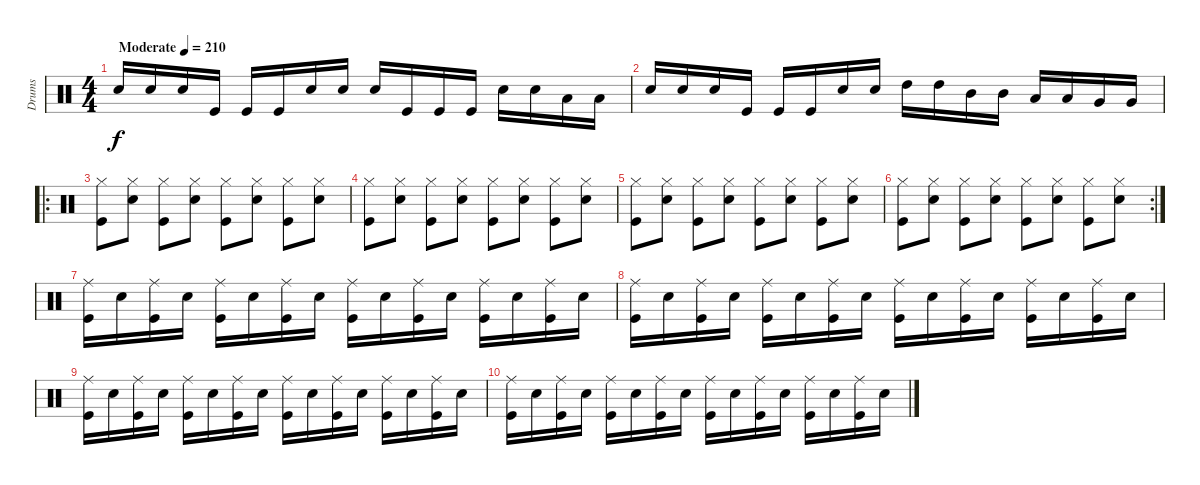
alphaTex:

\track ("Drums" "Drums") {instrument percussion}
\staff {score}
\articulation defaults
\ts (4 4)
\tempo (210 "Moderate")
\clef neutral
\ks c "Snare (hit) 2".16{dy f} "Snare (hit) 2".16 "Snare (hit) 2".16 "Kick (hit)".16 "Kick (hit)".16 "Kick (hit)".16 "Snare (hit) 2".16 "Snare (hit) 2".16 "Snare (hit) 2".16 "Kick (hit)".16 "Kick (hit)".16 "Kick (hit)".16 "Snare (hit) 2".16 "Snare (hit) 2".16 "Low Floor Tom (hit)".16 "Low Floor Tom (hit)".16
|
"Snare (hit) 2".16 "Snare (hit) 2".16 "Snare (hit) 2".16 "Kick (hit)".16 "Kick (hit)".16 "Kick (hit)".16 "Snare (hit) 2".16 "Snare (hit) 2".16 "High Tom (hit)".16 "High Tom (hit)".16 "Mid Tom (hit)".16 "Mid Tom (hit)".16 "Low Tom (hit)".16 "Low Tom (hit)".16 "Very Low Tom (hit)".16 "Very Low Tom (hit)".16 |
\ro
("Hi-Hat (closed)" "Kick (hit)").8 ("Hi-Hat (closed)" "Snare (hit) 2").8 ("Hi-Hat (closed)" "Kick (hit)").8 ("Hi-Hat (closed)" "Snare (hit) 2").8 ("Hi-Hat (closed)" "Kick (hit)").8 ("Hi-Hat (closed)" "Snare (hit) 2").8 ("Hi-Hat (closed)" "Kick (hit)").8 ("Hi-Hat (closed)" "Snare (hit) 2").8 |
("Hi-Hat (closed)" "Kick (hit)").8 ("Hi-Hat (closed)" "Snare (hit) 2").8 ("Hi-Hat (closed)" "Kick (hit)").8 ("Hi-Hat (closed)" "Snare (hit) 2").8 ("Hi-Hat (closed)" "Kick (hit)").8 ("Hi-Hat (closed)" "Snare (hit) 2").8 ("Hi-Hat (closed)" "Kick (hit)").8 ("Hi-Hat (closed)" "Snare (hit) 2").8 |
("Hi-Hat (closed)" "Kick (hit)").8 ("Hi-Hat (closed)" "Snare (hit) 2").8 ("Hi-Hat (closed)" "Kick (hit)").8 ("Hi-Hat (closed)" "Snare (hit) 2").8 ("Hi-Hat (closed)" "Kick (hit)").8 ("Hi-Hat (closed)" "Snare (hit) 2").8 ("Hi-Hat (closed)" "Kick (hit)").8 ("Hi-Hat (closed)" "Snare (hit) 2").8 |
\rc 2
("Hi-Hat (closed)" "Kick (hit)").8 ("Hi-Hat (closed)" "Snare (hit) 2").8 ("Hi-Hat (closed)" "Kick (hit)").8 ("Hi-Hat (closed)" "Snare (hit) 2").8 ("Hi-Hat (closed)" "Kick (hit)").8 ("Hi-Hat (closed)" "Snare (hit) 2").8 ("Hi-Hat (closed)" "Kick (hit)").8 ("Hi-Hat (closed)" "Snare (hit) 2").8 |
("Ride (middle)" "Kick (hit)").16 "Snare (hit) 2".16 ("Ride (middle)" "Kick (hit)").16 "Snare (hit) 2".16 ("Ride (middle)" "Kick (hit)").16 "Snare (hit) 2".16 ("Ride (middle)" "Kick (hit)").16 "Snare (hit) 2".16 ("Ride (middle)" "Kick (hit)").16 "Snare (hit) 2".16 ("Ride (middle)" "Kick (hit)").16 "Snare (hit) 2".16 ("Ride (middle)" "Kick (hit)").16 "Snare (hit) 2".16 ("Ride (middle)" "Kick (hit)").16 "Snare (hit) 2".16 |
("Ride (middle)" "Kick (hit)").16 "Snare (hit) 2".16 ("Ride (middle)" "Kick (hit)").16 "Snare (hit) 2".16 ("Ride (middle)" "Kick (hit)").16 "Snare (hit) 2".16 ("Ride (middle)" "Kick (hit)").16 "Snare (hit) 2".16 ("Ride (middle)" "Kick (hit)").16 "Snare (hit) 2".16 ("Ride (middle)" "Kick (hit)").16 "Snare (hit) 2".16 ("Ride (middle)" "Kick (hit)").16 "Snare (hit) 2".16 ("Ride (middle)" "Kick (hit)").16 "Snare (hit) 2".16 |
("Ride (middle)" "Kick (hit)").16 "Snare (hit) 2".16 ("Ride (middle)" "Kick (hit)").16 "Snare (hit) 2".16 ("Ride (middle)" "Kick (hit)").16 "Snare (hit) 2".16 ("Ride (middle)" "Kick (hit)").16 "Snare (hit) 2".16 ("Ride (middle)" "Kick (hit)").16 "Snare (hit) 2".16 ("Ride (middle)" "Kick (hit)").16 "Snare (hit) 2".16 ("Ride (middle)" "Kick (hit)").16 "Snare (hit) 2".16 ("Ride (middle)" "Kick (hit)").16 "Snare (hit) 2".16 |
("Ride (middle)" "Kick (hit)").16 "Snare (hit) 2".16 ("Ride (middle)" "Kick (hit)").16 "Snare (hit) 2".16 ("Ride (middle)" "Kick (hit)").16 "Snare (hit) 2".16 ("Ride (middle)" "Kick (hit)").16 "Snare (hit) 2".16 ("Ride (middle)" "Kick (hit)").16 "Snare (hit) 2".16 ("Ride (middle)" "Kick (hit)").16 "Snare (hit) 2".16 ("Ride (middle)" "Kick (hit)").16 "Snare (hit) 2".16 ("Ride (middle)" "Kick (hit)").16 "Snare (hit) 2".16
